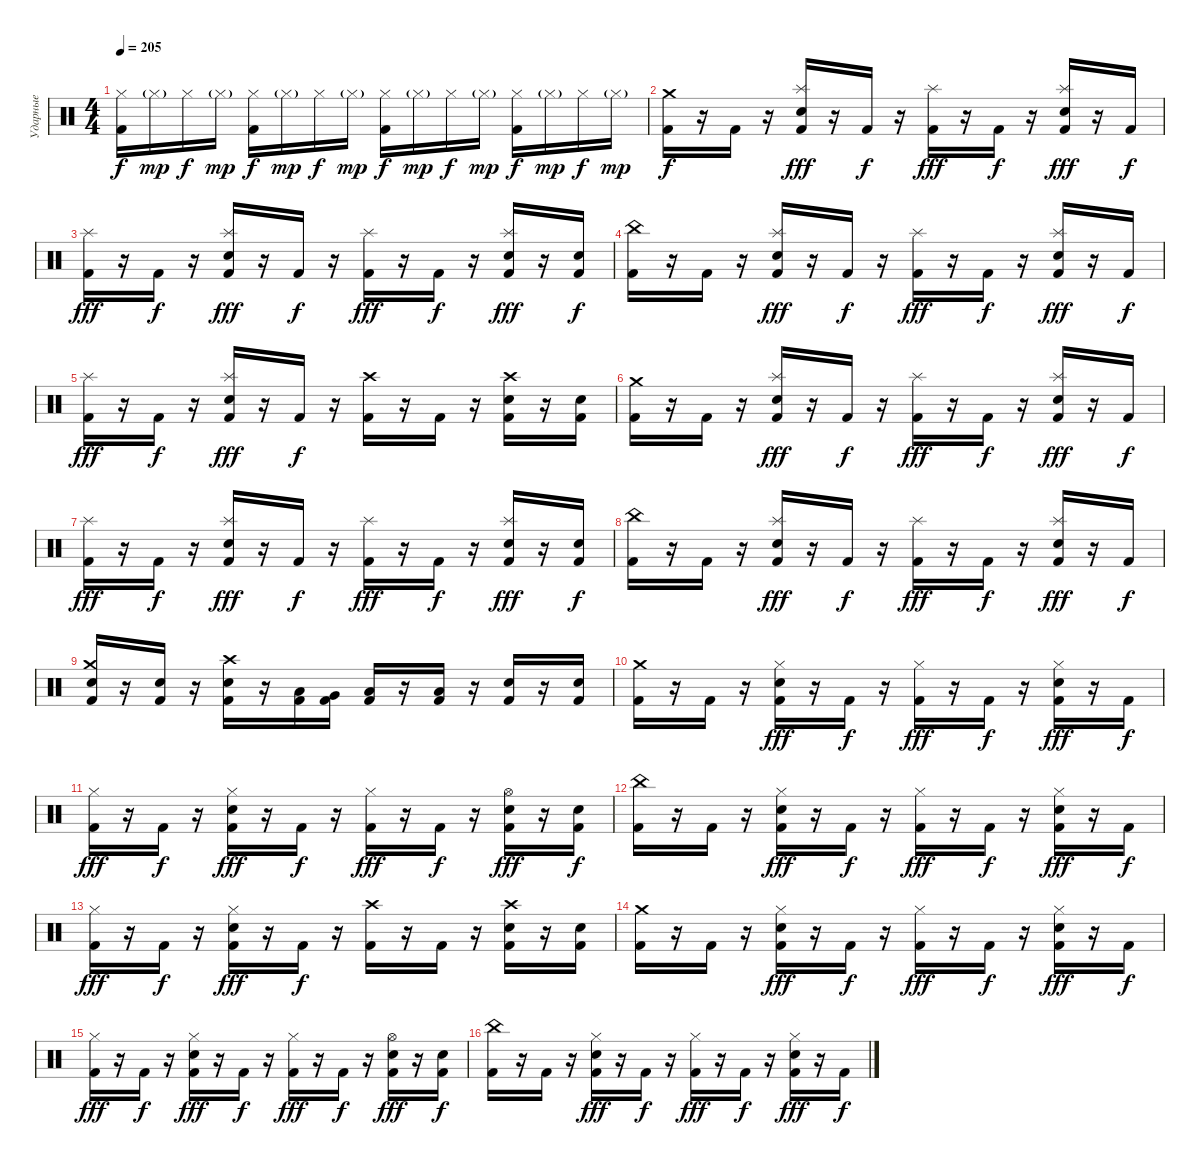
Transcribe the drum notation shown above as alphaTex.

\track ("Ударные" "Ударные") {instrument percussion}
\staff {score}
\articulation defaults
\ts (4 4)
\tempo 205
\clef neutral
\ks c
("Hi-Hat (closed)" "Kick (hit) 2").16{dy f} "Hi-Hat (closed)"{g}.16{dy mp} "Hi-Hat (closed)".16{dy f} "Hi-Hat (closed)"{g}.16{dy mp} ("Hi-Hat (closed)" "Kick (hit) 2").16{dy f} "Hi-Hat (closed)"{g}.16{dy mp} "Hi-Hat (closed)".16{dy f} "Hi-Hat (closed)"{g}.16{dy mp} ("Hi-Hat (closed)" "Kick (hit) 2").16{dy f} "Hi-Hat (closed)"{g}.16{dy mp} "Hi-Hat (closed)".16{dy f} "Hi-Hat (closed)"{g}.16{dy mp} ("Hi-Hat (closed)" "Kick (hit) 2").16{dy f} "Hi-Hat (closed)"{g}.16{dy mp} "Hi-Hat (closed)".16{dy f} "Hi-Hat (closed)"{g}.16{dy mp} |
("Crash medium (hit)" "Kick (hit) 2").16{dy f} r.16 "Kick (hit) 2".16 r.16 ("Splash (hit)" "Snare (hit) 2" "Kick (hit) 2").16{dy fff} r.16 "Kick (hit) 2".16{dy f} r.16 ("Splash (hit)" "Kick (hit) 2").16{dy fff} r.16 "Kick (hit) 2".16{dy f} r.16 ("Splash (hit)" "Snare (hit) 2" "Kick (hit) 2").16{dy fff} r.16 "Kick (hit) 2".16{dy f} |
("Splash (hit)" "Kick (hit) 2").16{dy fff} r.16 "Kick (hit) 2".16{dy f} r.16 ("Splash (hit)" "Snare (hit) 2" "Kick (hit) 2").16{dy fff} r.16 "Kick (hit) 2".16{dy f} r.16 ("Splash (hit)" "Kick (hit) 2").16{dy fff} r.16 "Kick (hit) 2".16{dy f} r.16 ("Splash (hit)" "Snare (hit) 2" "Kick (hit) 2").16{dy fff} r.16 ("Snare (hit) 2" "Kick (hit) 2").16{dy f} |
("China (hit)" "Kick (hit) 2").16 r.16 "Kick (hit) 2".16 r.16 ("Splash (hit)" "Snare (hit) 2" "Kick (hit) 2").16{dy fff} r.16 "Kick (hit) 2".16{dy f} r.16 ("Splash (hit)" "Kick (hit) 2").16{dy fff} r.16 "Kick (hit) 2".16{dy f} r.16 ("Splash (hit)" "Snare (hit) 2" "Kick (hit) 2").16{dy fff} r.16 "Kick (hit) 2".16{dy f} |
("Splash (hit)" "Kick (hit) 2").16{dy fff} r.16 "Kick (hit) 2".16{dy f} r.16 ("Splash (hit)" "Snare (hit) 2" "Kick (hit) 2").16{dy fff} r.16 "Kick (hit) 2".16{dy f} r.16 ("Crash high (hit)" "Kick (hit) 2").16 r.16 "Kick (hit) 2".16 r.16 ("Crash high (hit)" "Snare (hit) 2" "Kick (hit) 2").16 r.16 ("Snare (hit) 2" "Kick (hit) 2").16 |
("Crash medium (hit)" "Kick (hit) 2").16 r.16 "Kick (hit) 2".16 r.16 ("Splash (hit)" "Snare (hit) 2" "Kick (hit) 2").16{dy fff} r.16 "Kick (hit) 2".16{dy f} r.16 ("Splash (hit)" "Kick (hit) 2").16{dy fff} r.16 "Kick (hit) 2".16{dy f} r.16 ("Splash (hit)" "Snare (hit) 2" "Kick (hit) 2").16{dy fff} r.16 "Kick (hit) 2".16{dy f} |
("Splash (hit)" "Kick (hit) 2").16{dy fff} r.16 "Kick (hit) 2".16{dy f} r.16 ("Splash (hit)" "Snare (hit) 2" "Kick (hit) 2").16{dy fff} r.16 "Kick (hit) 2".16{dy f} r.16 ("Splash (hit)" "Kick (hit) 2").16{dy fff} r.16 "Kick (hit) 2".16{dy f} r.16 ("Splash (hit)" "Snare (hit) 2" "Kick (hit) 2").16{dy fff} r.16 ("Snare (hit) 2" "Kick (hit) 2").16{dy f} |
("China (hit)" "Kick (hit) 2").16 r.16 "Kick (hit) 2".16 r.16 ("Splash (hit)" "Snare (hit) 2" "Kick (hit) 2").16{dy fff} r.16 "Kick (hit) 2".16{dy f} r.16 ("Splash (hit)" "Kick (hit) 2").16{dy fff} r.16 "Kick (hit) 2".16{dy f} r.16 ("Splash (hit)" "Snare (hit) 2" "Kick (hit) 2").16{dy fff} r.16 "Kick (hit) 2".16{dy f} |
("Crash medium (hit)" "Snare (hit) 2" "Kick (hit) 2").16 r.16 ("Snare (hit) 2" "Kick (hit) 2").16 r.16 ("Crash high (hit)" "Snare (hit) 2" "Kick (hit) 2").16 r.16 ("Low Tom (hit)" "Kick (hit) 2").16 ("Very Low Tom (hit)" "Kick (hit) 2").16 ("Low Floor Tom (hit)" "Kick (hit) 2").16 r.16 ("Low Tom (hit)" "Kick (hit) 2").16 r.16 ("Snare (hit) 2" "Kick (hit) 2").16 r.16 ("Snare (hit) 2" "Kick (hit) 2").16 |
("Crash medium (hit)" "Kick (hit) 2").16 r.16 "Kick (hit) 2".16 r.16 ("Hi-Hat (closed)" "Snare (hit) 2" "Kick (hit) 2").16{dy fff} r.16 "Kick (hit) 2".16{dy f} r.16 ("Hi-Hat (closed)" "Kick (hit) 2").16{dy fff} r.16 "Kick (hit) 2".16{dy f} r.16 ("Hi-Hat (closed)" "Snare (hit) 2" "Kick (hit) 2").16{dy fff} r.16 "Kick (hit) 2".16{dy f} |
("Hi-Hat (closed)" "Kick (hit) 2").16{dy fff} r.16 "Kick (hit) 2".16{dy f} r.16 ("Hi-Hat (closed)" "Snare (hit) 2" "Kick (hit) 2").16{dy fff} r.16 "Kick (hit) 2".16{dy f} r.16 ("Hi-Hat (closed)" "Kick (hit) 2").16{dy fff} r.16 "Kick (hit) 2".16{dy f} r.16 ("Hi-Hat (open)" "Snare (hit) 2" "Kick (hit) 2").16{dy fff} r.16 ("Snare (hit) 2" "Kick (hit) 2").16{dy f} |
("China (hit)" "Kick (hit) 2").16 r.16 "Kick (hit) 2".16 r.16 ("Hi-Hat (closed)" "Snare (hit) 2" "Kick (hit) 2").16{dy fff} r.16 "Kick (hit) 2".16{dy f} r.16 ("Hi-Hat (closed)" "Kick (hit) 2").16{dy fff} r.16 "Kick (hit) 2".16{dy f} r.16 ("Hi-Hat (closed)" "Snare (hit) 2" "Kick (hit) 2").16{dy fff} r.16 "Kick (hit) 2".16{dy f} |
("Hi-Hat (closed)" "Kick (hit) 2").16{dy fff} r.16 "Kick (hit) 2".16{dy f} r.16 ("Hi-Hat (closed)" "Snare (hit) 2" "Kick (hit) 2").16{dy fff} r.16 "Kick (hit) 2".16{dy f} r.16 ("Crash high (hit)" "Kick (hit) 2").16 r.16 "Kick (hit) 2".16 r.16 ("Crash high (hit)" "Snare (hit) 2" "Kick (hit) 2").16 r.16 ("Snare (hit) 2" "Kick (hit) 2").16 |
("Crash medium (hit)" "Kick (hit) 2").16 r.16 "Kick (hit) 2".16 r.16 ("Hi-Hat (closed)" "Snare (hit) 2" "Kick (hit) 2").16{dy fff} r.16 "Kick (hit) 2".16{dy f} r.16 ("Hi-Hat (closed)" "Kick (hit) 2").16{dy fff} r.16 "Kick (hit) 2".16{dy f} r.16 ("Hi-Hat (closed)" "Snare (hit) 2" "Kick (hit) 2").16{dy fff} r.16 "Kick (hit) 2".16{dy f} |
("Hi-Hat (closed)" "Kick (hit) 2").16{dy fff} r.16 "Kick (hit) 2".16{dy f} r.16 ("Hi-Hat (closed)" "Snare (hit) 2" "Kick (hit) 2").16{dy fff} r.16 "Kick (hit) 2".16{dy f} r.16 ("Hi-Hat (closed)" "Kick (hit) 2").16{dy fff} r.16 "Kick (hit) 2".16{dy f} r.16 ("Hi-Hat (open)" "Snare (hit) 2" "Kick (hit) 2").16{dy fff} r.16 ("Snare (hit) 2" "Kick (hit) 2").16{dy f} |
("China (hit)" "Kick (hit) 2").16 r.16 "Kick (hit) 2".16 r.16 ("Hi-Hat (closed)" "Snare (hit) 2" "Kick (hit) 2").16{dy fff} r.16 "Kick (hit) 2".16{dy f} r.16 ("Hi-Hat (closed)" "Kick (hit) 2").16{dy fff} r.16 "Kick (hit) 2".16{dy f} r.16 ("Hi-Hat (closed)" "Snare (hit) 2" "Kick (hit) 2").16{dy fff} r.16 "Kick (hit) 2".16{dy f}
